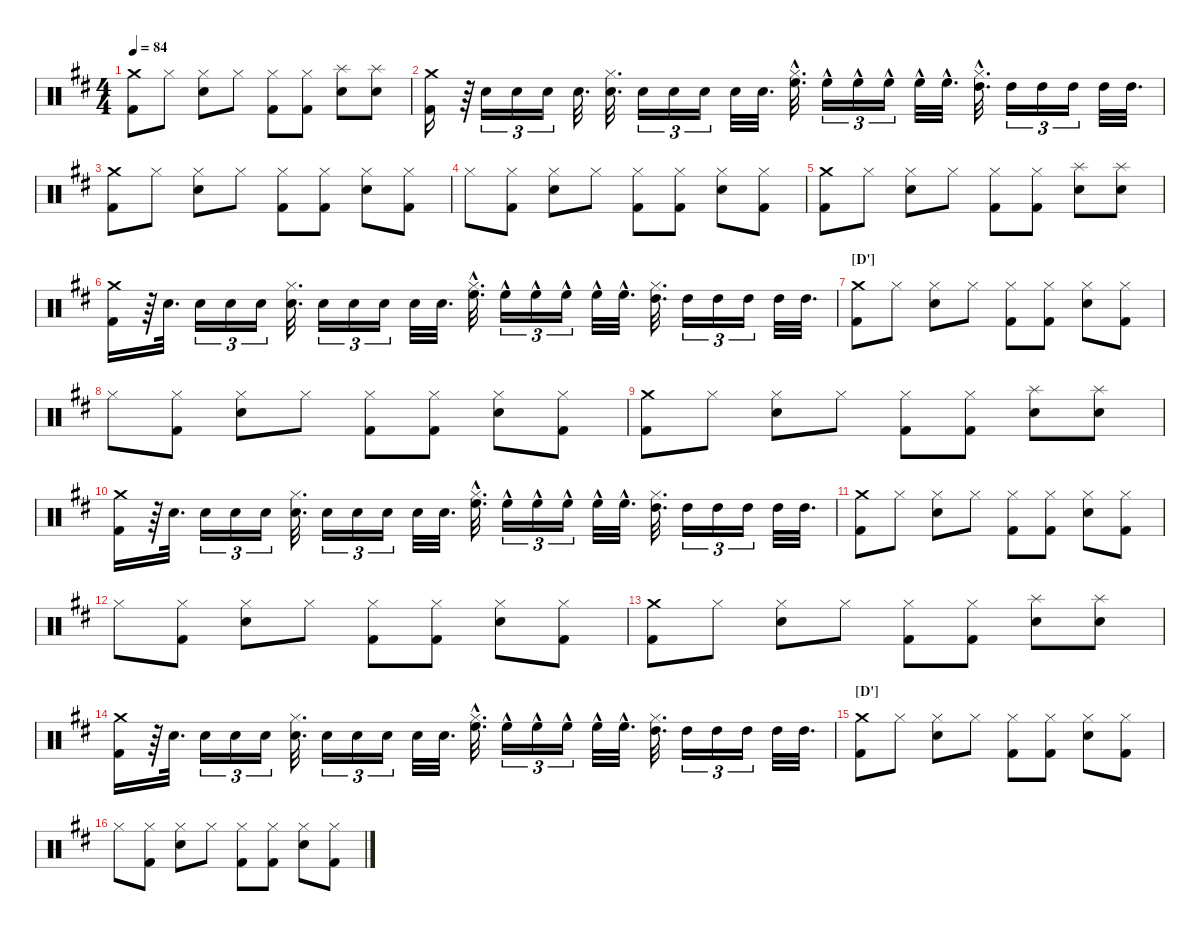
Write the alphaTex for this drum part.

\hideDynamics
\bracketExtendMode nobrackets
\singleTrackTrackNamePolicy hidden
\multiTrackTrackNamePolicy hidden
\otherSystemsTrackNameOrientation horizontal
\track ("Drumkit" "Drums") {instrument percussion}
\staff {score}
\articulation defaults
\ts (4 4)
\tempo 84
\clef neutral
\ks d
("Kick (hit) 2"{acc forcenatural} "Crash medium (hit)"{acc forcenatural}).8{dy f beam Down} "Hi-Hat (closed)"{acc forcenatural}.8{beam Down} ("Snare (hit) 2"{acc forcenatural} "Hi-Hat (closed)"{acc forcenatural}).8{beam Down} "Hi-Hat (closed)"{acc forcenatural}.8{beam Down} ("Kick (hit) 2"{acc forcenatural} "Hi-Hat (closed)"{acc forcenatural}).8{beam Down} ("Kick (hit) 2"{acc forcenatural} "Hi-Hat (closed)"{acc forcenatural}).8{beam Down} ("Snare (hit) 2"{acc forcenatural} "Splash (hit)"{acc forcenatural}).8{beam Down} ("Snare (hit) 2"{acc forcenatural} "Splash (hit)"{acc forcenatural}).8{beam Down} |
("Kick (hit) 2"{acc forcenatural} "Crash medium (hit)"{acc forcenatural}).16{beam Down} r.64{beam Down} "Snare (hit) 2"{acc forcenatural}.16{tu (3 2) beam Down} "Snare (hit) 2"{acc forcenatural}.16{tu (3 2) beam Down} "Snare (hit) 2"{acc forcenatural}.16{tu (3 2) beam Down} "Snare (hit) 2"{acc forcenatural}.32{d beam Down} ("Snare (hit) 2"{acc forcenatural} "Hi-Hat (closed)"{acc forcenatural}).32{d beam Down} "Snare (hit) 2"{acc forcenatural}.16{tu (3 2) beam Down} "Snare (hit) 2"{acc forcenatural}.16{tu (3 2) beam Down} "Snare (hit) 2"{acc forcenatural}.16{tu (3 2) beam Down} "Snare (hit) 2"{acc forcenatural}.32{beam Down} "Snare (hit) 2"{acc forcenatural}.32{d beam Down} ("High Floor Tom (hit)"{hac acc forcenatural} "Hi-Hat (closed)"{hac acc forcenatural}).32{d beam Down} "High Floor Tom (hit)"{hac acc forcenatural}.16{tu (3 2) beam Down} "High Floor Tom (hit)"{hac acc forcenatural}.16{tu (3 2) beam Down} "High Floor Tom (hit)"{hac acc forcenatural}.16{tu (3 2) beam Down} "High Floor Tom (hit)"{hac acc forcenatural}.32{beam Down} "High Floor Tom (hit)"{hac acc forcenatural}.32{d beam Down} ("Hi-Hat (closed)"{hac acc forcenatural} "High Tom (hit)"{hac acc forcenatural}).32{d beam Down} "High Tom (hit)"{acc forcenatural}.16{tu (3 2) beam Down} "High Tom (hit)"{acc forcenatural}.16{tu (3 2) beam Down} "High Tom (hit)"{acc forcenatural}.16{tu (3 2) beam Down} "High Tom (hit)"{acc forcenatural}.32{beam Down} "High Tom (hit)"{acc forcenatural}.32{d beam Down} |
("Kick (hit) 2"{acc forcenatural} "Crash medium (hit)"{acc forcenatural}).8{beam Down} "Hi-Hat (closed)"{acc forcenatural}.8{beam Down} ("Snare (hit) 2"{acc forcenatural} "Hi-Hat (closed)"{acc forcenatural}).8{beam Down} "Hi-Hat (closed)"{acc forcenatural}.8{beam Down} ("Kick (hit) 2"{acc forcenatural} "Hi-Hat (closed)"{acc forcenatural}).8{beam Down} ("Kick (hit) 2"{acc forcenatural} "Hi-Hat (closed)"{acc forcenatural}).8{beam Down} ("Snare (hit) 2"{acc forcenatural} "Hi-Hat (closed)"{acc forcenatural}).8{beam Down} ("Kick (hit) 2"{acc forcenatural} "Hi-Hat (closed)"{acc forcenatural}).8{beam Down} |
"Hi-Hat (closed)"{acc forcenatural}.8{beam Down} ("Kick (hit) 2"{acc forcenatural} "Hi-Hat (closed)"{acc forcenatural}).8{beam Down} ("Snare (hit) 2"{acc forcenatural} "Hi-Hat (closed)"{acc forcenatural}).8{beam Down} "Hi-Hat (closed)"{acc forcenatural}.8{beam Down} ("Kick (hit) 2"{acc forcenatural} "Hi-Hat (closed)"{acc forcenatural}).8{beam Down} ("Kick (hit) 2"{acc forcenatural} "Hi-Hat (closed)"{acc forcenatural}).8{beam Down} ("Snare (hit) 2"{acc forcenatural} "Hi-Hat (closed)"{acc forcenatural}).8{beam Down} ("Kick (hit) 2"{acc forcenatural} "Hi-Hat (closed)"{acc forcenatural}).8{beam Down} |
("Kick (hit) 2"{acc forcenatural} "Crash medium (hit)"{acc forcenatural}).8{beam Down} "Hi-Hat (closed)"{acc forcenatural}.8{beam Down} ("Snare (hit) 2"{acc forcenatural} "Hi-Hat (closed)"{acc forcenatural}).8{beam Down} "Hi-Hat (closed)"{acc forcenatural}.8{beam Down} ("Kick (hit) 2"{acc forcenatural} "Hi-Hat (closed)"{acc forcenatural}).8{beam Down} ("Kick (hit) 2"{acc forcenatural} "Hi-Hat (closed)"{acc forcenatural}).8{beam Down} ("Snare (hit) 2"{acc forcenatural} "Splash (hit)"{acc forcenatural}).8{beam Down} ("Snare (hit) 2"{acc forcenatural} "Splash (hit)"{acc forcenatural}).8{beam Down} |
("Kick (hit) 2"{acc forcenatural} "Crash medium (hit)"{acc forcenatural}).16{beam Down} r.64{beam Down} "Snare (hit) 2"{acc forcenatural}.32{d beam Down} "Snare (hit) 2"{acc forcenatural}.16{tu (3 2) beam Down} "Snare (hit) 2"{acc forcenatural}.16{tu (3 2) beam Down} "Snare (hit) 2"{acc forcenatural}.16{tu (3 2) beam Down} ("Snare (hit) 2"{acc forcenatural} "Hi-Hat (closed)"{acc forcenatural}).32{d beam Down} "Snare (hit) 2"{acc forcenatural}.16{tu (3 2) beam Down} "Snare (hit) 2"{acc forcenatural}.16{tu (3 2) beam Down} "Snare (hit) 2"{acc forcenatural}.16{tu (3 2) beam Down} "Snare (hit) 2"{acc forcenatural}.32{beam Down} "Snare (hit) 2"{acc forcenatural}.32{d beam Down} ("High Floor Tom (hit)"{hac acc forcenatural} "Hi-Hat (closed)"{hac acc forcenatural}).32{d beam Down} "High Floor Tom (hit)"{hac acc forcenatural}.16{tu (3 2) beam Down} "High Floor Tom (hit)"{hac acc forcenatural}.16{tu (3 2) beam Down} "High Floor Tom (hit)"{hac acc forcenatural}.16{tu (3 2) beam Down} "High Floor Tom (hit)"{hac acc forcenatural}.32{beam Down} "High Floor Tom (hit)"{hac acc forcenatural}.32{d beam Down} ("Hi-Hat (closed)"{acc forcenatural} "High Tom (hit)"{acc forcenatural}).32{d beam Down} "High Tom (hit)"{acc forcenatural}.16{tu (3 2) beam Down} "High Tom (hit)"{acc forcenatural}.16{tu (3 2) beam Down} "High Tom (hit)"{acc forcenatural}.16{tu (3 2) beam Down} "High Tom (hit)"{acc forcenatural}.32{beam Down} "High Tom (hit)"{acc forcenatural}.32{d beam Down} |
\section ("D'" "")
("Kick (hit) 2"{acc forcenatural} "Crash medium (hit)"{acc forcenatural}).8{beam Down} "Hi-Hat (closed)"{acc forcenatural}.8{beam Down} ("Snare (hit) 2"{acc forcenatural} "Hi-Hat (closed)"{acc forcenatural}).8{beam Down} "Hi-Hat (closed)"{acc forcenatural}.8{beam Down} ("Kick (hit) 2"{acc forcenatural} "Hi-Hat (closed)"{acc forcenatural}).8{beam Down} ("Kick (hit) 2"{acc forcenatural} "Hi-Hat (closed)"{acc forcenatural}).8{beam Down} ("Snare (hit) 2"{acc forcenatural} "Hi-Hat (closed)"{acc forcenatural}).8{beam Down} ("Kick (hit) 2"{acc forcenatural} "Hi-Hat (closed)"{acc forcenatural}).8{beam Down} |
"Hi-Hat (closed)"{acc forcenatural}.8{beam Down} ("Kick (hit) 2"{acc forcenatural} "Hi-Hat (closed)"{acc forcenatural}).8{beam Down} ("Snare (hit) 2"{acc forcenatural} "Hi-Hat (closed)"{acc forcenatural}).8{beam Down} "Hi-Hat (closed)"{acc forcenatural}.8{beam Down} ("Kick (hit) 2"{acc forcenatural} "Hi-Hat (closed)"{acc forcenatural}).8{beam Down} ("Kick (hit) 2"{acc forcenatural} "Hi-Hat (closed)"{acc forcenatural}).8{beam Down} ("Snare (hit) 2"{acc forcenatural} "Hi-Hat (closed)"{acc forcenatural}).8{beam Down} ("Kick (hit) 2"{acc forcenatural} "Hi-Hat (closed)"{acc forcenatural}).8{beam Down} |
("Kick (hit) 2"{acc forcenatural} "Crash medium (hit)"{acc forcenatural}).8{beam Down} "Hi-Hat (closed)"{acc forcenatural}.8{beam Down} ("Snare (hit) 2"{acc forcenatural} "Hi-Hat (closed)"{acc forcenatural}).8{beam Down} "Hi-Hat (closed)"{acc forcenatural}.8{beam Down} ("Kick (hit) 2"{acc forcenatural} "Hi-Hat (closed)"{acc forcenatural}).8{beam Down} ("Kick (hit) 2"{acc forcenatural} "Hi-Hat (closed)"{acc forcenatural}).8{beam Down} ("Snare (hit) 2"{acc forcenatural} "Splash (hit)"{acc forcenatural}).8{beam Down} ("Snare (hit) 2"{acc forcenatural} "Splash (hit)"{acc forcenatural}).8{beam Down} |
("Kick (hit) 2"{acc forcenatural} "Crash medium (hit)"{acc forcenatural}).16{beam Down} r.64{beam Down} "Snare (hit) 2"{acc forcenatural}.32{d beam Down} "Snare (hit) 2"{acc forcenatural}.16{tu (3 2) beam Down} "Snare (hit) 2"{acc forcenatural}.16{tu (3 2) beam Down} "Snare (hit) 2"{acc forcenatural}.16{tu (3 2) beam Down} ("Snare (hit) 2"{acc forcenatural} "Hi-Hat (closed)"{acc forcenatural}).32{d beam Down} "Snare (hit) 2"{acc forcenatural}.16{tu (3 2) beam Down} "Snare (hit) 2"{acc forcenatural}.16{tu (3 2) beam Down} "Snare (hit) 2"{acc forcenatural}.16{tu (3 2) beam Down} "Snare (hit) 2"{acc forcenatural}.32{beam Down} "Snare (hit) 2"{acc forcenatural}.32{d beam Down} ("High Floor Tom (hit)"{hac acc forcenatural} "Hi-Hat (closed)"{acc forcenatural}).32{d beam Down} "High Floor Tom (hit)"{hac acc forcenatural}.16{tu (3 2) beam Down} "High Floor Tom (hit)"{hac acc forcenatural}.16{tu (3 2) beam Down} "High Floor Tom (hit)"{hac acc forcenatural}.16{tu (3 2) beam Down} "High Floor Tom (hit)"{hac acc forcenatural}.32{beam Down} "High Floor Tom (hit)"{hac acc forcenatural}.32{d beam Down} ("Hi-Hat (closed)"{acc forcenatural} "High Tom (hit)"{acc forcenatural}).32{d beam Down} "High Tom (hit)"{acc forcenatural}.16{tu (3 2) beam Down} "High Tom (hit)"{acc forcenatural}.16{tu (3 2) beam Down} "High Tom (hit)"{acc forcenatural}.16{tu (3 2) beam Down} "High Tom (hit)"{acc forcenatural}.32{beam Down} "High Tom (hit)"{acc forcenatural}.32{d beam Down} |
("Kick (hit) 2"{acc forcenatural} "Crash medium (hit)"{acc forcenatural}).8{beam Down} "Hi-Hat (closed)"{acc forcenatural}.8{beam Down} ("Snare (hit) 2"{acc forcenatural} "Hi-Hat (closed)"{acc forcenatural}).8{beam Down} "Hi-Hat (closed)"{acc forcenatural}.8{beam Down} ("Kick (hit) 2"{acc forcenatural} "Hi-Hat (closed)"{acc forcenatural}).8{beam Down} ("Kick (hit) 2"{acc forcenatural} "Hi-Hat (closed)"{acc forcenatural}).8{beam Down} ("Snare (hit) 2"{acc forcenatural} "Hi-Hat (closed)"{acc forcenatural}).8{beam Down} ("Kick (hit) 2"{acc forcenatural} "Hi-Hat (closed)"{acc forcenatural}).8{beam Down} |
"Hi-Hat (closed)"{acc forcenatural}.8{beam Down} ("Kick (hit) 2"{acc forcenatural} "Hi-Hat (closed)"{acc forcenatural}).8{beam Down} ("Snare (hit) 2"{acc forcenatural} "Hi-Hat (closed)"{acc forcenatural}).8{beam Down} "Hi-Hat (closed)"{acc forcenatural}.8{beam Down} ("Kick (hit) 2"{acc forcenatural} "Hi-Hat (closed)"{acc forcenatural}).8{beam Down} ("Kick (hit) 2"{acc forcenatural} "Hi-Hat (closed)"{acc forcenatural}).8{beam Down} ("Snare (hit) 2"{acc forcenatural} "Hi-Hat (closed)"{acc forcenatural}).8{beam Down} ("Kick (hit) 2"{acc forcenatural} "Hi-Hat (closed)"{acc forcenatural}).8{beam Down} |
("Kick (hit) 2"{acc forcenatural} "Crash medium (hit)"{acc forcenatural}).8{beam Down} "Hi-Hat (closed)"{acc forcenatural}.8{beam Down} ("Snare (hit) 2"{acc forcenatural} "Hi-Hat (closed)"{acc forcenatural}).8{beam Down} "Hi-Hat (closed)"{acc forcenatural}.8{beam Down} ("Kick (hit) 2"{acc forcenatural} "Hi-Hat (closed)"{acc forcenatural}).8{beam Down} ("Kick (hit) 2"{acc forcenatural} "Hi-Hat (closed)"{acc forcenatural}).8{beam Down} ("Snare (hit) 2"{acc forcenatural} "Splash (hit)"{acc forcenatural}).8{beam Down} ("Snare (hit) 2"{acc forcenatural} "Splash (hit)"{acc forcenatural}).8{beam Down} |
("Kick (hit) 2"{acc forcenatural} "Crash medium (hit)"{acc forcenatural}).16{beam Down} r.64{beam Down} "Snare (hit) 2"{acc forcenatural}.32{d beam Down} "Snare (hit) 2"{acc forcenatural}.16{tu (3 2) beam Down} "Snare (hit) 2"{acc forcenatural}.16{tu (3 2) beam Down} "Snare (hit) 2"{acc forcenatural}.16{tu (3 2) beam Down} ("Snare (hit) 2"{acc forcenatural} "Hi-Hat (closed)"{acc forcenatural}).32{d beam Down} "Snare (hit) 2"{acc forcenatural}.16{tu (3 2) beam Down} "Snare (hit) 2"{acc forcenatural}.16{tu (3 2) beam Down} "Snare (hit) 2"{acc forcenatural}.16{tu (3 2) beam Down} "Snare (hit) 2"{acc forcenatural}.32{beam Down} "Snare (hit) 2"{acc forcenatural}.32{d beam Down} ("High Floor Tom (hit)"{hac acc forcenatural} "Hi-Hat (closed)"{hac acc forcenatural}).32{d beam Down} "High Floor Tom (hit)"{hac acc forcenatural}.16{tu (3 2) beam Down} "High Floor Tom (hit)"{hac acc forcenatural}.16{tu (3 2) beam Down} "High Floor Tom (hit)"{hac acc forcenatural}.16{tu (3 2) beam Down} "High Floor Tom (hit)"{hac acc forcenatural}.32{beam Down} "High Floor Tom (hit)"{hac acc forcenatural}.32{d beam Down} ("Hi-Hat (closed)"{acc forcenatural} "High Tom (hit)"{acc forcenatural}).32{d beam Down} "High Tom (hit)"{acc forcenatural}.16{tu (3 2) beam Down} "High Tom (hit)"{acc forcenatural}.16{tu (3 2) beam Down} "High Tom (hit)"{acc forcenatural}.16{tu (3 2) beam Down} "High Tom (hit)"{acc forcenatural}.32{beam Down} "High Tom (hit)"{acc forcenatural}.32{d beam Down} |
\section ("D'" "")
("Kick (hit) 2"{acc forcenatural} "Crash medium (hit)"{acc forcenatural}).8{beam Down} "Hi-Hat (closed)"{acc forcenatural}.8{beam Down} ("Snare (hit) 2"{acc forcenatural} "Hi-Hat (closed)"{acc forcenatural}).8{beam Down} "Hi-Hat (closed)"{acc forcenatural}.8{beam Down} ("Kick (hit) 2"{acc forcenatural} "Hi-Hat (closed)"{acc forcenatural}).8{beam Down} ("Kick (hit) 2"{acc forcenatural} "Hi-Hat (closed)"{acc forcenatural}).8{beam Down} ("Snare (hit) 2"{acc forcenatural} "Hi-Hat (closed)"{acc forcenatural}).8{beam Down} ("Kick (hit) 2"{acc forcenatural} "Hi-Hat (closed)"{acc forcenatural}).8{beam Down} |
"Hi-Hat (closed)"{acc forcenatural}.8{beam Down} ("Kick (hit) 2"{acc forcenatural} "Hi-Hat (closed)"{acc forcenatural}).8{beam Down} ("Snare (hit) 2"{acc forcenatural} "Hi-Hat (closed)"{acc forcenatural}).8{beam Down} "Hi-Hat (closed)"{acc forcenatural}.8{beam Down} ("Kick (hit) 2"{acc forcenatural} "Hi-Hat (closed)"{acc forcenatural}).8{beam Down} ("Kick (hit) 2"{acc forcenatural} "Hi-Hat (closed)"{acc forcenatural}).8{beam Down} ("Snare (hit) 2"{acc forcenatural} "Hi-Hat (closed)"{acc forcenatural}).8{beam Down} ("Kick (hit) 2"{acc forcenatural} "Hi-Hat (closed)"{acc forcenatural}).8{beam Down}
